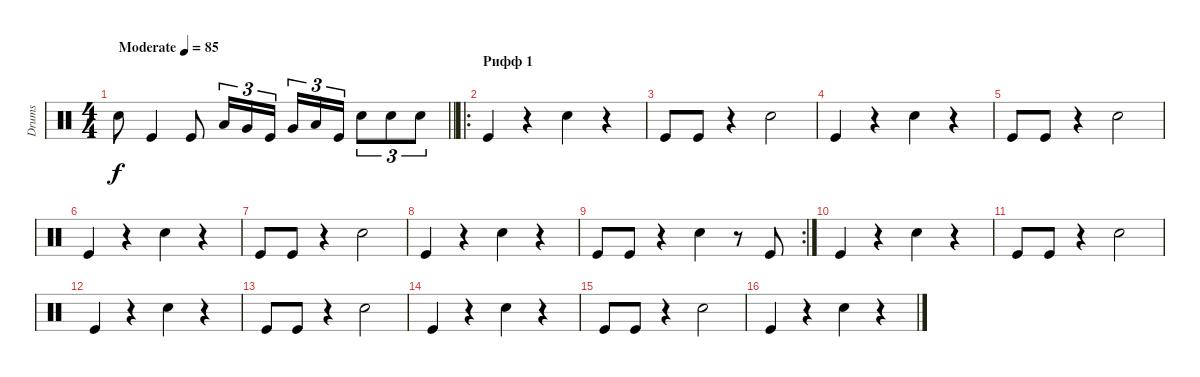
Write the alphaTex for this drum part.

\track ("Drums" "Drums") {instrument percussion}
\staff {score}
\articulation defaults
\ts (4 4)
\tempo (85 "Moderate")
\clef neutral
\barLineRight lightlight
\ks c "Electric Snare (hit)".8{dy f} "Kick (hit)".4 "Kick (hit)".8 "Low Tom (hit)".16{tu (3 2)} "Very Low Tom (hit)".16{tu (3 2)} "Kick (hit)".16{tu (3 2) beam splitsecondary} "Very Low Tom (hit)".16{tu (3 2)} "Low Floor Tom (hit)".16{tu (3 2)} "Kick (hit)".16{tu (3 2)} "Electric Snare (hit)".8{tu (3 2)} "Electric Snare (hit)".8{tu (3 2)} "Electric Snare (hit)".8{tu (3 2)}
|
\ro
\section ("" "Рифф 1")
"Kick (hit)".4 r.4 "Electric Snare (hit)".4 r.4 |
"Kick (hit)".8 "Kick (hit)".8 r.4 "Electric Snare (hit)".2 |
"Kick (hit)".4 r.4 "Electric Snare (hit)".4 r.4 |
"Kick (hit)".8 "Kick (hit)".8 r.4 "Electric Snare (hit)".2 |
"Kick (hit)".4 r.4 "Electric Snare (hit)".4 r.4 |
"Kick (hit)".8 "Kick (hit)".8 r.4 "Electric Snare (hit)".2 |
"Kick (hit)".4 r.4 "Electric Snare (hit)".4 r.4 |
\rc 2 "Kick (hit)".8 "Kick (hit)".8
r.4 "Electric Snare (hit)".4 r.8 "Kick (hit)".8 |
"Kick (hit)".4 r.4 "Electric Snare (hit)".4 r.4 |
"Kick (hit)".8 "Kick (hit)".8 r.4 "Electric Snare (hit)".2 |
"Kick (hit)".4 r.4 "Electric Snare (hit)".4 r.4 |
"Kick (hit)".8 "Kick (hit)".8 r.4 "Electric Snare (hit)".2 |
"Kick (hit)".4 r.4 "Electric Snare (hit)".4 r.4 |
"Kick (hit)".8 "Kick (hit)".8 r.4 "Electric Snare (hit)".2 |
"Kick (hit)".4 r.4 "Electric Snare (hit)".4 r.4
